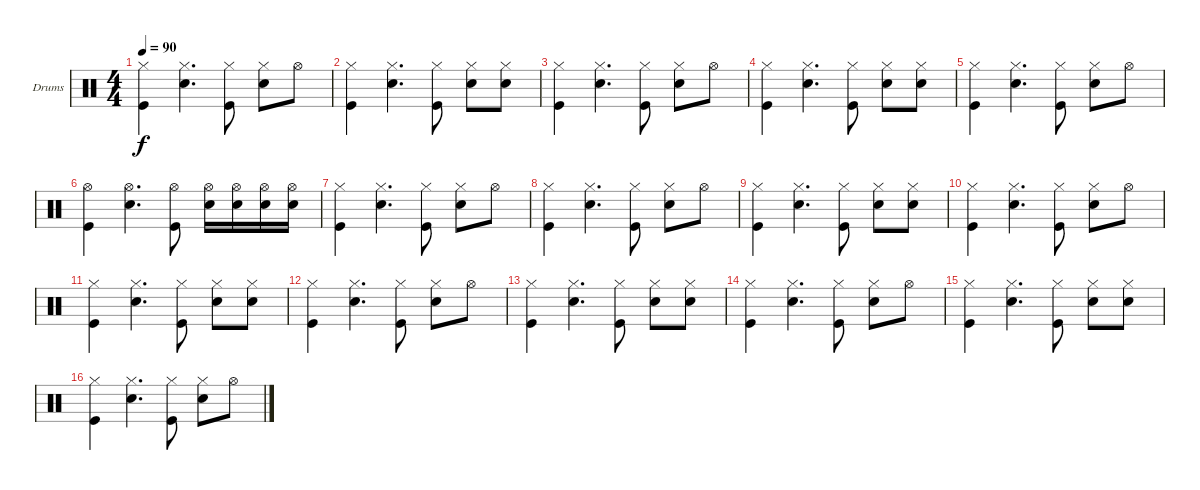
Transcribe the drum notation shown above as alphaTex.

\bracketExtendMode groupsimilarinstruments
\firstSystemTrackNameOrientation horizontal
\otherSystemsTrackNameOrientation horizontal
\track ("Drumkit" "Drums") {instrument percussion}
\staff {score}
\articulation defaults
\ts (4 4)
\tempo 90
\clef neutral
\ks c
("Kick (hit)" "Hi-Hat (closed)").4{dy f} ("Snare (hit) 2" "Hi-Hat (closed)").4{d} ("Kick (hit)" "Hi-Hat (closed)").8 ("Snare (hit) 2" "Hi-Hat (closed)").8 "Hi-Hat (open)".8 |
("Kick (hit)" "Hi-Hat (closed)").4 ("Snare (hit) 2" "Hi-Hat (closed)").4{d} ("Kick (hit)" "Hi-Hat (closed)").8 ("Snare (hit) 2" "Hi-Hat (closed)").8 ("Snare (hit) 2" "Hi-Hat (closed)").8 |
("Kick (hit)" "Hi-Hat (closed)").4 ("Snare (hit) 2" "Hi-Hat (closed)").4{d} ("Kick (hit)" "Hi-Hat (closed)").8 ("Snare (hit) 2" "Hi-Hat (closed)").8 "Hi-Hat (open)".8 |
("Kick (hit)" "Hi-Hat (closed)").4 ("Snare (hit) 2" "Hi-Hat (closed)").4{d} ("Kick (hit)" "Hi-Hat (closed)").8 ("Snare (hit) 2" "Hi-Hat (closed)").8 ("Snare (hit) 2" "Hi-Hat (closed)").8 |
("Kick (hit)" "Hi-Hat (closed)").4 ("Snare (hit) 2" "Hi-Hat (closed)").4{d} ("Kick (hit)" "Hi-Hat (closed)").8 ("Snare (hit) 2" "Hi-Hat (closed)").8 "Hi-Hat (open)".8 |
("Kick (hit)" "Hi-Hat (open)").4 ("Snare (hit) 2" "Hi-Hat (open)").4{d} ("Kick (hit)" "Hi-Hat (open)").8 ("Snare (hit) 2" "Hi-Hat (open)").16 ("Snare (hit) 2" "Hi-Hat (open)").16 ("Snare (hit) 2" "Hi-Hat (open)").16 ("Snare (hit) 2" "Hi-Hat (open)").16 |
("Kick (hit)" "Hi-Hat (closed)").4 ("Snare (hit) 2" "Hi-Hat (closed)").4{d} ("Kick (hit)" "Hi-Hat (closed)").8 ("Snare (hit) 2" "Hi-Hat (closed)").8 "Hi-Hat (open)".8 |
("Kick (hit)" "Hi-Hat (closed)").4 ("Snare (hit) 2" "Hi-Hat (closed)").4{d} ("Kick (hit)" "Hi-Hat (closed)").8 ("Snare (hit) 2" "Hi-Hat (closed)").8 "Hi-Hat (open)".8 |
("Kick (hit)" "Hi-Hat (closed)").4 ("Snare (hit) 2" "Hi-Hat (closed)").4{d} ("Kick (hit)" "Hi-Hat (closed)").8 ("Snare (hit) 2" "Hi-Hat (closed)").8 ("Snare (hit) 2" "Hi-Hat (closed)").8 |
("Kick (hit)" "Hi-Hat (closed)").4 ("Snare (hit) 2" "Hi-Hat (closed)").4{d} ("Kick (hit)" "Hi-Hat (closed)").8 ("Snare (hit) 2" "Hi-Hat (closed)").8 "Hi-Hat (open)".8 |
("Kick (hit)" "Hi-Hat (closed)").4 ("Snare (hit) 2" "Hi-Hat (closed)").4{d} ("Kick (hit)" "Hi-Hat (closed)").8 ("Snare (hit) 2" "Hi-Hat (closed)").8 ("Snare (hit) 2" "Hi-Hat (closed)").8 |
("Kick (hit)" "Hi-Hat (closed)").4 ("Snare (hit) 2" "Hi-Hat (closed)").4{d} ("Kick (hit)" "Hi-Hat (closed)").8 ("Snare (hit) 2" "Hi-Hat (closed)").8 "Hi-Hat (open)".8 |
("Kick (hit)" "Hi-Hat (closed)").4 ("Snare (hit) 2" "Hi-Hat (closed)").4{d} ("Kick (hit)" "Hi-Hat (closed)").8 ("Snare (hit) 2" "Hi-Hat (closed)").8 ("Snare (hit) 2" "Hi-Hat (closed)").8 |
("Kick (hit)" "Hi-Hat (closed)").4 ("Snare (hit) 2" "Hi-Hat (closed)").4{d} ("Kick (hit)" "Hi-Hat (closed)").8 ("Snare (hit) 2" "Hi-Hat (closed)").8 "Hi-Hat (open)".8 |
("Kick (hit)" "Hi-Hat (closed)").4 ("Snare (hit) 2" "Hi-Hat (closed)").4{d} ("Kick (hit)" "Hi-Hat (closed)").8 ("Snare (hit) 2" "Hi-Hat (closed)").8 ("Snare (hit) 2" "Hi-Hat (closed)").8 |
("Kick (hit)" "Hi-Hat (closed)").4 ("Snare (hit) 2" "Hi-Hat (closed)").4{d} ("Kick (hit)" "Hi-Hat (closed)").8 ("Snare (hit) 2" "Hi-Hat (closed)").8 "Hi-Hat (open)".8
